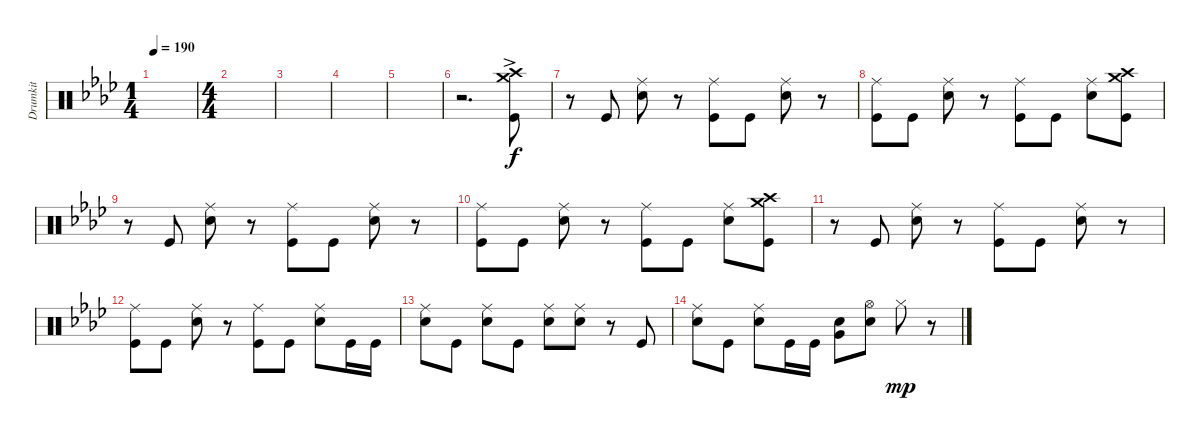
\track ("Drumkit" "Drumkit") {instrument percussion}
\staff {score}
\articulation defaults
\ts (1 4)
\tempo 190
\clef neutral
\ks ab
|
\ts (4 4)
|
|
|
|
r.2{d} ("Crash medium (hit)"{ac} "Crash high (hit)"{ac} "Kick (hit)"{ac}).8 |
r.8 "Kick (hit)".8 ("Snare (hit) 2" "Ride (middle)").8 r.8 ("Kick (hit)" "Ride (middle)").8 "Kick (hit)".8 ("Snare (hit) 2" "Ride (middle)").8 r.8 |
("Kick (hit)" "Ride (middle)").8 "Kick (hit)".8 ("Snare (hit) 2" "Ride (middle)").8 r.8 ("Kick (hit)" "Ride (middle)").8 "Kick (hit)".8 ("Snare (hit) 2" "Ride (middle)").8 ("Crash medium (hit)" "Crash high (hit)" "Kick (hit)").8 |
r.8 "Kick (hit)".8 ("Snare (hit) 2" "Ride (middle)").8 r.8 ("Kick (hit)" "Ride (middle)").8 "Kick (hit)".8 ("Snare (hit) 2" "Ride (middle)").8 r.8 |
("Kick (hit)" "Ride (middle)").8 "Kick (hit)".8 ("Snare (hit) 2" "Ride (middle)").8 r.8 ("Kick (hit)" "Ride (middle)").8 "Kick (hit)".8 ("Snare (hit) 2" "Ride (middle)").8 ("Crash medium (hit)" "Crash high (hit)" "Kick (hit)").8 |
r.8 "Kick (hit)".8 ("Snare (hit) 2" "Ride (middle)").8 r.8 ("Kick (hit)" "Ride (middle)").8 "Kick (hit)".8 ("Snare (hit) 2" "Ride (middle)").8 r.8 |
("Kick (hit)" "Ride (middle)").8 "Kick (hit)".8 ("Snare (hit) 2" "Ride (middle)").8 r.8 ("Kick (hit)" "Ride (middle)").8 "Kick (hit)".8 ("Snare (hit) 2" "Ride (middle)").8 "Kick (hit)".16 "Kick (hit)".16 |
("Snare (hit) 2" "Ride (middle)").8 "Kick (hit)".8 ("Snare (hit) 2" "Ride (middle)").8 "Kick (hit)".8 ("Snare (hit) 2" "Ride (middle)").8 ("Snare (hit) 2" "Ride (middle)").8 r.8 "Kick (hit)".8 |
("Snare (hit) 2" "Ride (middle)").8 "Kick (hit)".8 ("Snare (hit) 2" "Ride (middle)").8 "Kick (hit)".16 "Kick (hit)".16 ("Snare (hit) 2" "Very Low Tom (hit)").8 ("Snare (hit) 2" "Hi-Hat (open)").8 "Hi-Hat (closed)".8{dy mp} r.8
